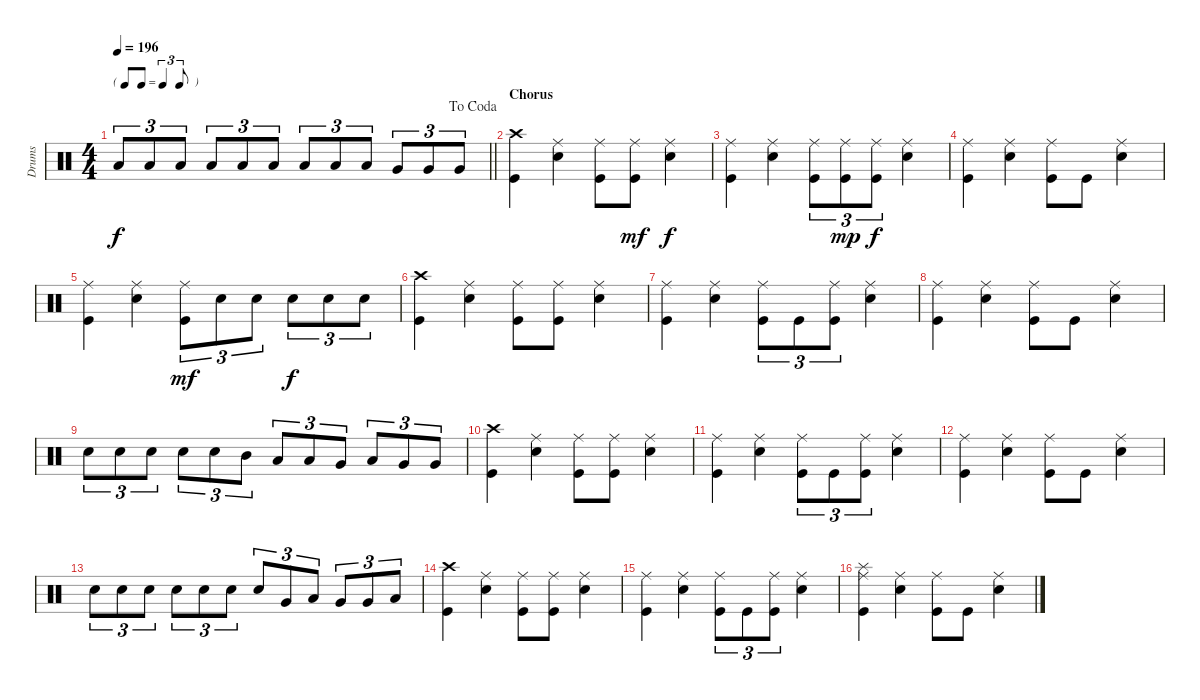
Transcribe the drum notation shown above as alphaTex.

\track ("Drums" "Drums") {instrument percussion}
\staff {score}
\articulation defaults
\ts (4 4)
\tf triplet8th
\jump dacoda
\tempo 196
\clef neutral
\barLineRight lightlight
\ks c "Low Tom (hit)".8{tu (3 2) dy f} "Low Tom (hit)".8{tu (3 2)} "Low Tom (hit)".8{tu (3 2)} "Low Tom (hit)".8{tu (3 2)} "Low Tom (hit)".8{tu (3 2)} "Low Tom (hit)".8{tu (3 2)} "Low Tom (hit)".8{tu (3 2)} "Low Tom (hit)".8{tu (3 2)} "Low Tom (hit)".8{tu (3 2)} "Very Low Tom (hit)".8{tu (3 2)} "Very Low Tom (hit)".8{tu (3 2)} "Very Low Tom (hit)".8{tu (3 2)}
|
\section ("" "Chorus")
("Crash high (hit)" "Kick (hit)").4 ("Ride (middle)" "Snare (hit) 2").4 ("Ride (middle)" "Kick (hit)").8 ("Ride (middle)" "Kick (hit)").8{dy mf} ("Ride (middle)" "Snare (hit) 2").4{dy f} |
("Ride (middle)" "Kick (hit)").4 ("Ride (middle)" "Snare (hit) 2").4 ("Ride (middle)" "Kick (hit)").8{tu (3 2)} ("Ride (middle)" "Kick (hit)").8{tu (3 2) dy mp} ("Ride (middle)" "Kick (hit)").8{tu (3 2) dy f} ("Ride (middle)" "Snare (hit) 2").4 |
("Ride (middle)" "Kick (hit)").4 ("Ride (middle)" "Snare (hit) 2").4 ("Ride (middle)" "Kick (hit)").8 "Kick (hit)".8 ("Ride (middle)" "Snare (hit) 2").4 |
("Ride (middle)" "Kick (hit)").4 ("Ride (middle)" "Snare (hit) 2").4 ("Ride (middle)" "Kick (hit)").8{tu (3 2) dy mf} "Snare (hit) 2".8{tu (3 2)} "Snare (hit) 2".8{tu (3 2)} "Snare (hit) 2".8{tu (3 2) dy f} "Snare (hit) 2".8{tu (3 2)} "Snare (hit) 2".8{tu (3 2)} |
("Crash high (hit)" "Kick (hit)").4 ("Ride (middle)" "Snare (hit) 2").4 ("Ride (middle)" "Kick (hit)").8 ("Ride (middle)" "Kick (hit)").8 ("Ride (middle)" "Snare (hit) 2").4 |
("Ride (middle)" "Kick (hit)").4 ("Ride (middle)" "Snare (hit) 2").4 ("Ride (middle)" "Kick (hit)").8{tu (3 2)} "Kick (hit)".8{tu (3 2)} ("Ride (middle)" "Kick (hit)").8{tu (3 2)} ("Ride (middle)" "Snare (hit) 2").4 |
("Ride (middle)" "Kick (hit)").4 ("Ride (middle)" "Snare (hit) 2").4 ("Ride (middle)" "Kick (hit)").8 "Kick (hit)".8 ("Ride (middle)" "Snare (hit) 2").4 |
"Snare (hit) 2".8{tu (3 2)} "Snare (hit) 2".8{tu (3 2)} "Snare (hit) 2".8{tu (3 2)} "Snare (hit) 2".8{tu (3 2)} "Snare (hit) 2".8{tu (3 2)} "Mid Tom (hit)".8{tu (3 2)} "Low Tom (hit)".8{tu (3 2)} "Low Tom (hit)".8{tu (3 2)} "Very Low Tom (hit)".8{tu (3 2)} "Low Tom (hit)".8{tu (3 2)} "Very Low Tom (hit)".8{tu (3 2)} "Very Low Tom (hit)".8{tu (3 2)} |
("Crash high (hit)" "Kick (hit)").4 ("Ride (middle)" "Snare (hit) 2").4 ("Ride (middle)" "Kick (hit)").8 ("Ride (middle)" "Kick (hit)").8 ("Ride (middle)" "Snare (hit) 2").4 |
("Ride (middle)" "Kick (hit)").4 ("Ride (middle)" "Snare (hit) 2").4 ("Ride (middle)" "Kick (hit)").8{tu (3 2)} "Kick (hit)".8{tu (3 2)} ("Ride (middle)" "Kick (hit)").8{tu (3 2)} ("Ride (middle)" "Snare (hit) 2").4 |
("Ride (middle)" "Kick (hit)").4 ("Ride (middle)" "Snare (hit) 2").4 ("Ride (middle)" "Kick (hit)").8 "Kick (hit)".8 ("Ride (middle)" "Snare (hit) 2").4 |
"Snare (hit) 2".8{tu (3 2)} "Snare (hit) 2".8{tu (3 2)} "Snare (hit) 2".8{tu (3 2)} "Snare (hit) 2".8{tu (3 2)} "Snare (hit) 2".8{tu (3 2)} "Snare (hit) 2".8{tu (3 2)} "Snare (hit) 2".8{tu (3 2)} "Very Low Tom (hit)".8{tu (3 2)} "Low Tom (hit)".8{tu (3 2)} "Very Low Tom (hit)".8{tu (3 2)} "Very Low Tom (hit)".8{tu (3 2)} "Low Floor Tom (hit)".8{tu (3 2)} |
("Crash high (hit)" "Kick (hit)").4 ("Ride (middle)" "Snare (hit) 2").4 ("Ride (middle)" "Kick (hit)").8 ("Ride (middle)" "Kick (hit)").8 ("Ride (middle)" "Snare (hit) 2").4 |
("Ride (middle)" "Kick (hit)").4 ("Ride (middle)" "Snare (hit) 2").4 ("Ride (middle)" "Kick (hit)").8{tu (3 2)} "Kick (hit)".8{tu (3 2)} ("Ride (middle)" "Kick (hit)").8{tu (3 2)} ("Ride (middle)" "Snare (hit) 2").4 |
("Splash (hit)" "Ride (middle)" "Kick (hit)").4 ("Ride (middle)" "Snare (hit) 2").4 ("Ride (middle)" "Kick (hit)").8 "Kick (hit)".8 ("Ride (middle)" "Snare (hit) 2").4
